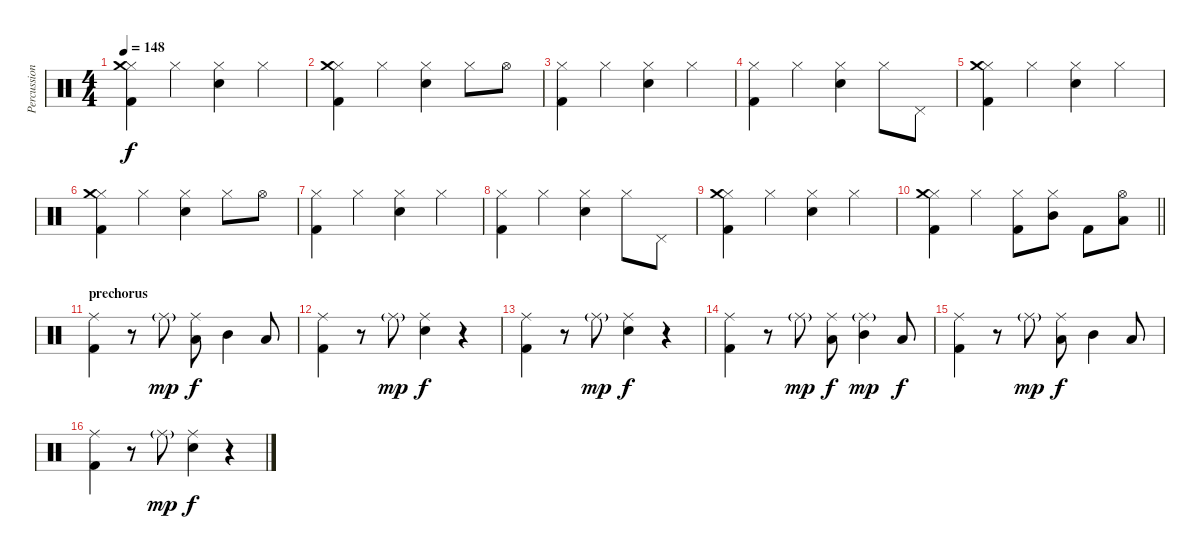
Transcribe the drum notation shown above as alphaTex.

\track ("Percussions" "Percussion") {instrument percussion}
\staff {score}
\articulation defaults
\ts (4 4)
\tempo 148
\clef neutral
\ks c
("Hi-Hat (closed)" "Kick (hit) 2" "Crash medium (hit)").4{dy f} "Hi-Hat (closed)".4 ("Hi-Hat (closed)" "Snare (hit) 2").4 "Hi-Hat (closed)".4 |
("Hi-Hat (closed)" "Kick (hit) 2" "Crash medium (hit)").4 "Hi-Hat (closed)".4 ("Hi-Hat (closed)" "Snare (hit) 2").4 "Hi-Hat (closed)".8 "Hi-Hat (open)".8 |
("Hi-Hat (closed)" "Kick (hit) 2").4 "Hi-Hat (closed)".4 ("Hi-Hat (closed)" "Snare (hit) 2").4 "Hi-Hat (closed)".4 |
("Hi-Hat (closed)" "Kick (hit) 2").4 "Hi-Hat (closed)".4 ("Hi-Hat (closed)" "Snare (hit) 2").4 "Hi-Hat (closed)".8 "Pedal Hi-Hat (hit)".8 |
("Hi-Hat (closed)" "Kick (hit) 2" "Crash medium (hit)").4 "Hi-Hat (closed)".4 ("Hi-Hat (closed)" "Snare (hit) 2").4 "Hi-Hat (closed)".4 |
("Hi-Hat (closed)" "Kick (hit) 2" "Crash medium (hit)").4 "Hi-Hat (closed)".4 ("Hi-Hat (closed)" "Snare (hit) 2").4 "Hi-Hat (closed)".8 "Hi-Hat (open)".8 |
("Hi-Hat (closed)" "Kick (hit) 2").4 "Hi-Hat (closed)".4 ("Hi-Hat (closed)" "Snare (hit) 2").4 "Hi-Hat (closed)".4 |
("Hi-Hat (closed)" "Kick (hit) 2").4 "Hi-Hat (closed)".4 ("Hi-Hat (closed)" "Snare (hit) 2").4 "Hi-Hat (closed)".8 "Pedal Hi-Hat (hit)".8 |
("Hi-Hat (closed)" "Kick (hit) 2" "Crash medium (hit)").4 "Hi-Hat (closed)".4 ("Hi-Hat (closed)" "Snare (hit) 2").4 "Hi-Hat (closed)".4 |
\barLineRight lightlight
("Hi-Hat (closed)" "Kick (hit) 2" "Crash medium (hit)").4 "Hi-Hat (closed)".4 ("Hi-Hat (closed)" "Kick (hit) 2").8 ("Hi-Hat (closed)" "Mid Tom (hit)").8 "Kick (hit) 2".8 ("Hi-Hat (open)" "Low Tom (hit)").8 |
\section ("" "prechorus")
("Ride (middle)" "Kick (hit) 2").4 r.8 "Ride (middle)"{g}.8{dy mp} ("Ride (middle)" "Low Tom (hit)").8{dy f} "Mid Tom (hit)".4 "Low Tom (hit)".8 |
("Ride (middle)" "Kick (hit) 2").4 r.8 "Ride (middle)"{g}.8{dy mp} ("Ride (middle)" "Snare (hit) 2").4{dy f} r.4 |
("Ride (middle)" "Kick (hit) 2").4 r.8 "Ride (middle)"{g}.8{dy mp} ("Ride (middle)" "Snare (hit) 2").4{dy f} r.4 |
("Ride (middle)" "Kick (hit) 2").4 r.8 "Ride (middle)"{g}.8{dy mp} ("Ride (middle)" "Low Tom (hit)").8{dy f} ("Ride (middle)"{g} "Mid Tom (hit)").4{dy mp} "Low Tom (hit)".8{dy f} |
("Ride (middle)" "Kick (hit) 2").4 r.8 "Ride (middle)"{g}.8{dy mp} ("Ride (middle)" "Low Tom (hit)").8{dy f} "Mid Tom (hit)".4 "Low Tom (hit)".8 |
("Ride (middle)" "Kick (hit) 2").4 r.8 "Ride (middle)"{g}.8{dy mp} ("Ride (middle)" "Snare (hit) 2").4{dy f} r.4
